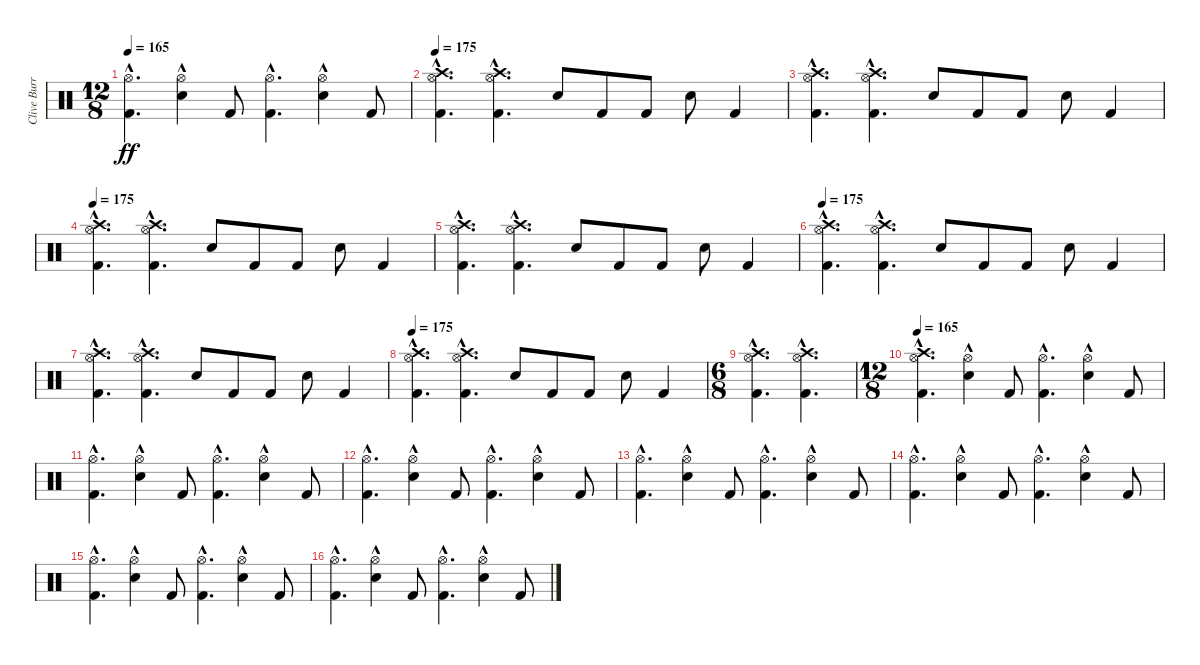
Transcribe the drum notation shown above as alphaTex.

\track ("Clive Burr" "Clive Burr") {instrument percussion}
\staff {score}
\articulation defaults
\ts (12 8)
\tempo 165
\clef neutral
\ks c
("Kick (hit) 2"{hac} "Hi-Hat (open)"{hac}).4{d dy ff} ("Snare (hit) 2"{hac} "Hi-Hat (open)").4 "Kick (hit) 2".8 ("Kick (hit) 2"{hac} "Hi-Hat (open)"{hac}).4{d} ("Snare (hit) 2"{hac} "Hi-Hat (open)").4 "Kick (hit) 2".8 |
\tempo 175
("Kick (hit) 2"{hac} "Hi-Hat (open)"{hac} "Crash high (hit)"{hac}).4{d} ("Kick (hit) 2"{hac} "Hi-Hat (open)"{hac} "Crash high (hit)"{hac}).4{d} "Snare (hit) 2".8 "Kick (hit) 2".8 "Kick (hit) 2".8 "Snare (hit) 2".8 "Kick (hit) 2".4 |
("Kick (hit) 2"{hac} "Hi-Hat (open)"{hac} "Crash high (hit)"{hac}).4{d} ("Kick (hit) 2"{hac} "Hi-Hat (open)"{hac} "Crash high (hit)"{hac}).4{d} "Snare (hit) 2".8 "Kick (hit) 2".8 "Kick (hit) 2".8 "Snare (hit) 2".8 "Kick (hit) 2".4 |
\tempo 175
("Kick (hit) 2"{hac} "Hi-Hat (open)"{hac} "Crash high (hit)"{hac}).4{d} ("Kick (hit) 2"{hac} "Hi-Hat (open)"{hac} "Crash high (hit)"{hac}).4{d} "Snare (hit) 2".8 "Kick (hit) 2".8 "Kick (hit) 2".8 "Snare (hit) 2".8 "Kick (hit) 2".4 |
("Kick (hit) 2"{hac} "Hi-Hat (open)"{hac} "Crash high (hit)"{hac}).4{d} ("Kick (hit) 2"{hac} "Hi-Hat (open)"{hac} "Crash high (hit)"{hac}).4{d} "Snare (hit) 2".8 "Kick (hit) 2".8 "Kick (hit) 2".8 "Snare (hit) 2".8 "Kick (hit) 2".4 |
\tempo 175
("Kick (hit) 2"{hac} "Hi-Hat (open)"{hac} "Crash high (hit)"{hac}).4{d} ("Kick (hit) 2"{hac} "Hi-Hat (open)"{hac} "Crash high (hit)"{hac}).4{d} "Snare (hit) 2".8 "Kick (hit) 2".8 "Kick (hit) 2".8 "Snare (hit) 2".8 "Kick (hit) 2".4 |
("Kick (hit) 2"{hac} "Hi-Hat (open)"{hac} "Crash high (hit)"{hac}).4{d} ("Kick (hit) 2"{hac} "Hi-Hat (open)"{hac} "Crash high (hit)"{hac}).4{d} "Snare (hit) 2".8 "Kick (hit) 2".8 "Kick (hit) 2".8 "Snare (hit) 2".8 "Kick (hit) 2".4 |
\tempo 175
("Kick (hit) 2"{hac} "Hi-Hat (open)"{hac} "Crash high (hit)"{hac}).4{d} ("Kick (hit) 2"{hac} "Hi-Hat (open)"{hac} "Crash high (hit)"{hac}).4{d} "Snare (hit) 2".8 "Kick (hit) 2".8 "Kick (hit) 2".8 "Snare (hit) 2".8 "Kick (hit) 2".4 |
\ts (6 8)
("Kick (hit) 2"{hac} "Hi-Hat (open)"{hac} "Crash high (hit)"{hac}).4{d} ("Kick (hit) 2"{hac} "Hi-Hat (open)"{hac} "Crash high (hit)"{hac}).4{d} |
\ts (12 8)
\tempo 165
("Kick (hit) 2"{hac} "Hi-Hat (open)"{hac} "Crash high (hit)"{hac}).4{d} ("Snare (hit) 2"{hac} "Hi-Hat (open)").4 "Kick (hit) 2".8 ("Kick (hit) 2"{hac} "Hi-Hat (open)"{hac}).4{d} ("Snare (hit) 2"{hac} "Hi-Hat (open)").4 "Kick (hit) 2".8 |
("Kick (hit) 2"{hac} "Hi-Hat (open)"{hac}).4{d} ("Snare (hit) 2"{hac} "Hi-Hat (open)").4 "Kick (hit) 2".8 ("Kick (hit) 2"{hac} "Hi-Hat (open)"{hac}).4{d} ("Snare (hit) 2"{hac} "Hi-Hat (open)").4 "Kick (hit) 2".8 |
("Kick (hit) 2"{hac} "Hi-Hat (open)"{hac}).4{d} ("Snare (hit) 2"{hac} "Hi-Hat (open)").4 "Kick (hit) 2".8 ("Kick (hit) 2"{hac} "Hi-Hat (open)"{hac}).4{d} ("Snare (hit) 2"{hac} "Hi-Hat (open)").4 "Kick (hit) 2".8 |
("Kick (hit) 2"{hac} "Hi-Hat (open)"{hac}).4{d} ("Snare (hit) 2"{hac} "Hi-Hat (open)").4 "Kick (hit) 2".8 ("Kick (hit) 2"{hac} "Hi-Hat (open)"{hac}).4{d} ("Snare (hit) 2"{hac} "Hi-Hat (open)").4 "Kick (hit) 2".8 |
("Kick (hit) 2"{hac} "Hi-Hat (open)"{hac}).4{d} ("Snare (hit) 2"{hac} "Hi-Hat (open)").4 "Kick (hit) 2".8 ("Kick (hit) 2"{hac} "Hi-Hat (open)"{hac}).4{d} ("Snare (hit) 2"{hac} "Hi-Hat (open)").4 "Kick (hit) 2".8 |
("Kick (hit) 2"{hac} "Hi-Hat (open)"{hac}).4{d} ("Snare (hit) 2"{hac} "Hi-Hat (open)").4 "Kick (hit) 2".8 ("Kick (hit) 2"{hac} "Hi-Hat (open)"{hac}).4{d} ("Snare (hit) 2"{hac} "Hi-Hat (open)").4 "Kick (hit) 2".8 |
("Kick (hit) 2"{hac} "Hi-Hat (open)"{hac}).4{d} ("Snare (hit) 2"{hac} "Hi-Hat (open)").4 "Kick (hit) 2".8 ("Kick (hit) 2"{hac} "Hi-Hat (open)"{hac}).4{d} ("Snare (hit) 2"{hac} "Hi-Hat (open)").4 "Kick (hit) 2".8
